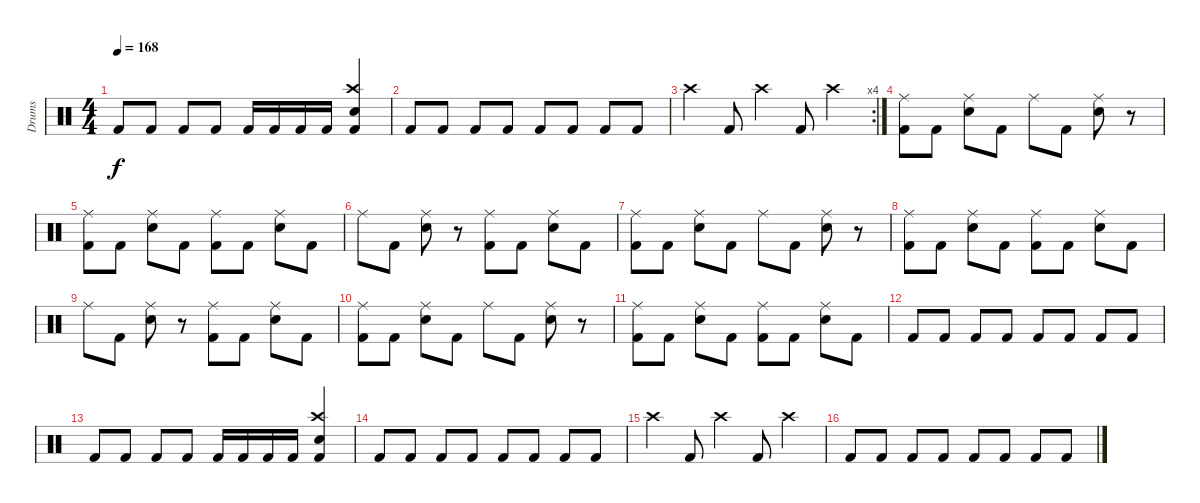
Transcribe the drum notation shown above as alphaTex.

\track ("Drums" "Drums") {instrument percussion}
\staff {score}
\articulation defaults
\ts (4 4)
\tempo 168
\clef neutral
\ks c "Kick (hit) 2".8{dy f} "Kick (hit) 2".8 "Kick (hit) 2".8 "Kick (hit) 2".8 "Kick (hit) 2".16 "Kick (hit) 2".16 "Kick (hit) 2".16 "Kick (hit) 2".16
("Crash high (hit)" "Snare (hit) 2" "Kick (hit) 2").4 |
"Kick (hit) 2".8 "Kick (hit) 2".8 "Kick (hit) 2".8 "Kick (hit) 2".8 "Kick (hit) 2".8 "Kick (hit) 2".8 "Kick (hit) 2".8 "Kick (hit) 2".8 |
\rc 4 "Crash high (hit)".4 "Kick (hit) 2".8 "Crash high (hit)".4 "Kick (hit) 2".8 "Crash high (hit)".4
|
("Ride (middle)" "Kick (hit) 2").8 "Kick (hit) 2".8 ("Ride (middle)" "Snare (hit) 2").8 "Kick (hit) 2".8 "Ride (middle)".8 "Kick (hit) 2".8 ("Ride (middle)" "Snare (hit) 2").8 r.8 |
("Ride (middle)" "Kick (hit) 2").8 "Kick (hit) 2".8 ("Ride (middle)" "Snare (hit) 2").8 "Kick (hit) 2".8 ("Ride (middle)" "Kick (hit) 2").8 "Kick (hit) 2".8 ("Ride (middle)" "Snare (hit) 2").8 "Kick (hit) 2".8 |
"Ride (middle)".8 "Kick (hit) 2".8 ("Ride (middle)" "Snare (hit) 2").8 r.8 ("Ride (middle)" "Kick (hit) 2").8 "Kick (hit) 2".8 ("Ride (middle)" "Snare (hit) 2").8 "Kick (hit) 2".8 |
("Ride (middle)" "Kick (hit) 2").8 "Kick (hit) 2".8 ("Ride (middle)" "Snare (hit) 2").8 "Kick (hit) 2".8 "Ride (middle)".8 "Kick (hit) 2".8 ("Ride (middle)" "Snare (hit) 2").8 r.8 |
("Ride (middle)" "Kick (hit) 2").8 "Kick (hit) 2".8 ("Ride (middle)" "Snare (hit) 2").8 "Kick (hit) 2".8 ("Ride (middle)" "Kick (hit) 2").8 "Kick (hit) 2".8 ("Ride (middle)" "Snare (hit) 2").8 "Kick (hit) 2".8 |
"Ride (middle)".8 "Kick (hit) 2".8 ("Ride (middle)" "Snare (hit) 2").8 r.8 ("Ride (middle)" "Kick (hit) 2").8 "Kick (hit) 2".8 ("Ride (middle)" "Snare (hit) 2").8 "Kick (hit) 2".8 |
("Ride (middle)" "Kick (hit) 2").8 "Kick (hit) 2".8 ("Ride (middle)" "Snare (hit) 2").8 "Kick (hit) 2".8 "Ride (middle)".8 "Kick (hit) 2".8 ("Ride (middle)" "Snare (hit) 2").8 r.8 |
("Ride (middle)" "Kick (hit) 2").8 "Kick (hit) 2".8 ("Ride (middle)" "Snare (hit) 2").8 "Kick (hit) 2".8 ("Ride (middle)" "Kick (hit) 2").8 "Kick (hit) 2".8 ("Ride (middle)" "Snare (hit) 2").8 "Kick (hit) 2".8 |
"Kick (hit) 2".8 "Kick (hit) 2".8 "Kick (hit) 2".8 "Kick (hit) 2".8 "Kick (hit) 2".8 "Kick (hit) 2".8 "Kick (hit) 2".8 "Kick (hit) 2".8 |
"Kick (hit) 2".8 "Kick (hit) 2".8 "Kick (hit) 2".8 "Kick (hit) 2".8 "Kick (hit) 2".16 "Kick (hit) 2".16 "Kick (hit) 2".16 "Kick (hit) 2".16 ("Crash high (hit)" "Snare (hit) 2" "Kick (hit) 2").4 |
"Kick (hit) 2".8 "Kick (hit) 2".8 "Kick (hit) 2".8 "Kick (hit) 2".8 "Kick (hit) 2".8 "Kick (hit) 2".8 "Kick (hit) 2".8 "Kick (hit) 2".8 |
"Crash high (hit)".4 "Kick (hit) 2".8 "Crash high (hit)".4 "Kick (hit) 2".8 "Crash high (hit)".4 |
"Kick (hit) 2".8 "Kick (hit) 2".8 "Kick (hit) 2".8 "Kick (hit) 2".8 "Kick (hit) 2".8 "Kick (hit) 2".8 "Kick (hit) 2".8 "Kick (hit) 2".8
